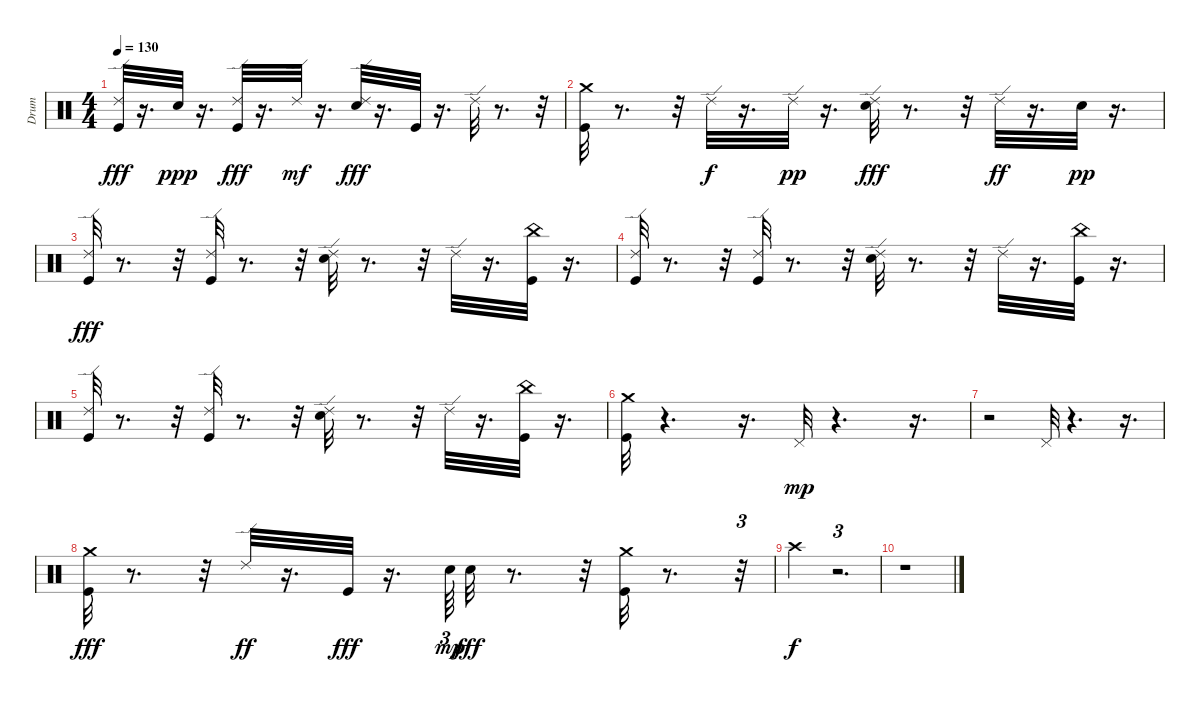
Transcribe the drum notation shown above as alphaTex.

\track ("Drum" "Drum") {instrument percussion}
\staff {score}
\articulation defaults
\ts (4 4)
\tempo 130
\clef neutral
\ks c
("Ride (edge) 2" "Kick (hit)").32{dy fff} r.16{d} "Snare (hit) 2".32{dy ppp} r.16{d} ("Ride (edge) 2" "Kick (hit)").32{dy fff} r.16{d} "Ride (edge) 2".32{dy mf} r.16{d} ("Ride (edge) 2" "Snare (hit) 2").32{dy fff} r.16{d} "Kick (hit)".32 r.16{d} "Ride (edge) 2".32 r.8{d} r.32 |
("Crash medium (hit)" "Kick (hit)").32 r.8{d} r.32 "Ride (edge) 2".32{dy f} r.16{d} "Ride (edge) 2".32{dy pp} r.16{d} ("Ride (edge) 2" "Snare (hit) 2").32{dy fff} r.8{d} r.32 "Ride (edge) 2".32{dy ff} r.16{d} "Snare (hit) 2".32{dy pp} r.16{d} |
("Ride (edge) 2" "Kick (hit)").32{dy fff} r.8{d} r.32 ("Ride (edge) 2" "Kick (hit)").32 r.8{d} r.32 ("Ride (edge) 2" "Snare (hit) 2").32 r.8{d} r.32 "Ride (edge) 2".32 r.16{d} ("China (hit)" "Kick (hit)").32 r.16{d} |
("Ride (edge) 2" "Kick (hit)").32 r.8{d} r.32 ("Ride (edge) 2" "Kick (hit)").32 r.8{d} r.32 ("Ride (edge) 2" "Snare (hit) 2").32 r.8{d} r.32 "Ride (edge) 2".32 r.16{d} ("China (hit)" "Kick (hit)").32 r.16{d} |
("Ride (edge) 2" "Kick (hit)").32 r.8{d} r.32 ("Ride (edge) 2" "Kick (hit)").32 r.8{d} r.32 ("Ride (edge) 2" "Snare (hit) 2").32 r.8{d} r.32 "Ride (edge) 2".32 r.16{d} ("China (hit)" "Kick (hit)").32 r.16{d} |
("Crash medium (hit)" "Kick (hit)").32 r.4{d} r.16{d} "Pedal Hi-Hat (hit)".32{dy mp} r.4{d} r.16{d} |
r.2 "Pedal Hi-Hat (hit)".32 r.4{d} r.16{d} |
("Crash medium (hit)" "Kick (hit)").32{dy fff} r.8{d} r.32 "Ride (edge) 2".32{dy ff} r.16{d} "Kick (hit)".32{dy fff} r.16{d} "Snare (hit) 2".64{tu (3 2) dy mp} "Snare (hit) 2".32{dy fff} r.8{d} r.32 ("Crash medium (hit)" "Kick (hit)").32 r.8{d} r.32{tu (3 2)} |
"Crash high (hit)".2{dy f} r.2{d tu (3 2)} |
r.1
